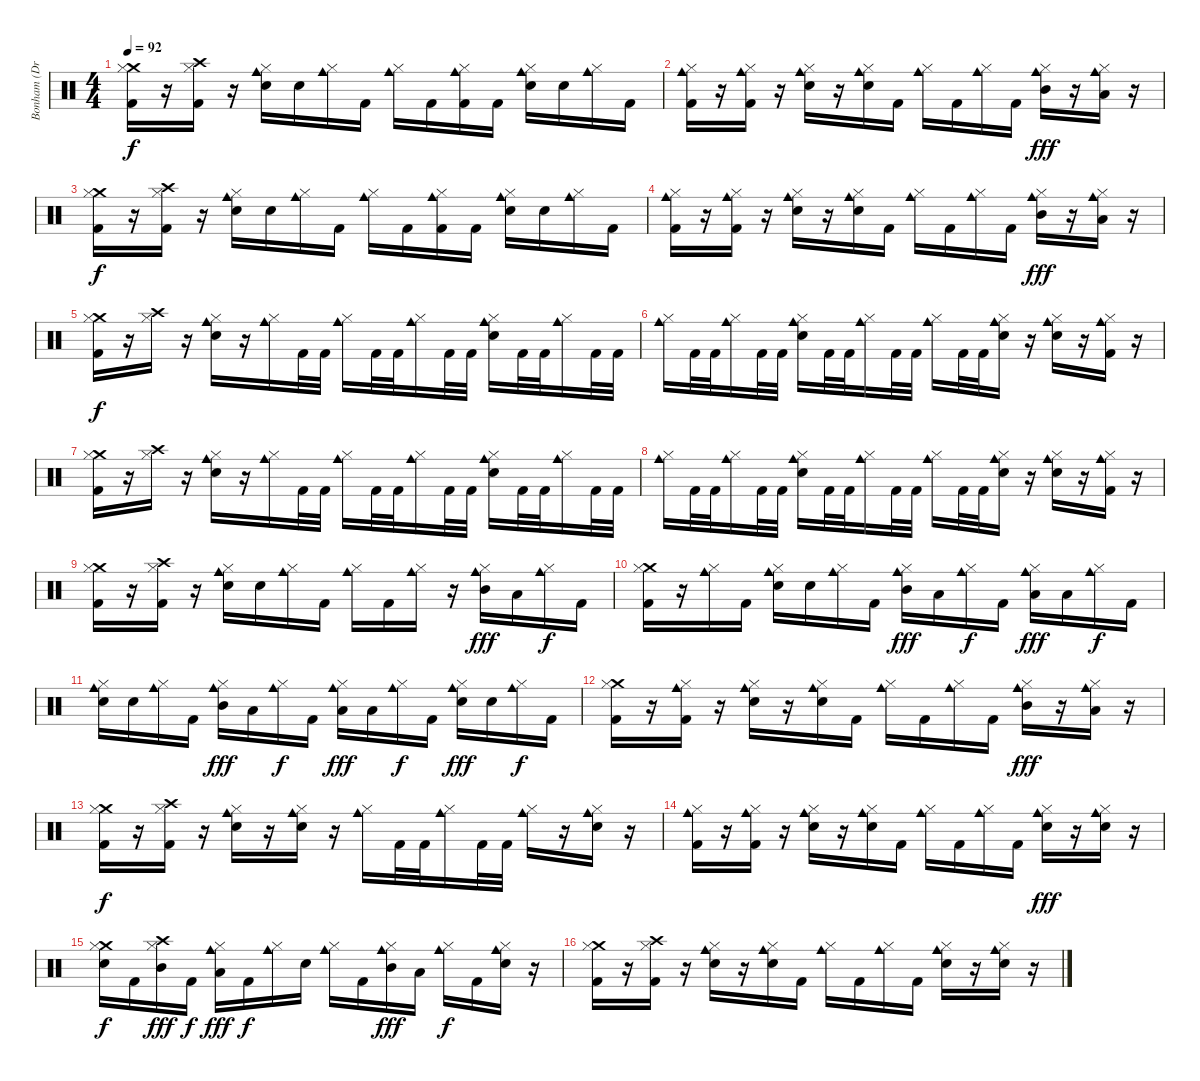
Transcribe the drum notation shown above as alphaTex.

\track ("Bonham (Drums)" "Bonham (Dr") {instrument percussion}
\staff {score}
\articulation defaults
\ts (4 4)
\tempo 92
\clef neutral
\ks c
("Crash medium (hit)" "Hi-Hat (closed)" "Kick (hit) 2").16{dy f} r.16 ("Crash high (hit)" "Hi-Hat (closed)" "Kick (hit) 2").16 r.16 ("Cowbell medium (hit)" "Hi-Hat (closed)" "Electric Snare (hit)").16 "Electric Snare (hit)".16 ("Cowbell medium (hit)" "Hi-Hat (closed)").16 "Kick (hit) 2".16 ("Cowbell medium (hit)" "Hi-Hat (closed)").16 "Kick (hit) 2".16 ("Cowbell medium (hit)" "Hi-Hat (closed)" "Kick (hit) 2").16 "Kick (hit) 2".16 ("Cowbell medium (hit)" "Hi-Hat (closed)" "Electric Snare (hit)").16 "Electric Snare (hit)".16 ("Cowbell medium (hit)" "Hi-Hat (closed)").16 "Kick (hit) 2".16 |
("Cowbell medium (hit)" "Hi-Hat (closed)" "Kick (hit) 2").16 r.16 ("Cowbell medium (hit)" "Hi-Hat (closed)" "Kick (hit) 2").16 r.16 ("Cowbell medium (hit)" "Hi-Hat (closed)" "Electric Snare (hit)").16 r.16 ("Cowbell medium (hit)" "Hi-Hat (closed)" "Electric Snare (hit)").16 "Kick (hit) 2".16 ("Cowbell medium (hit)" "Hi-Hat (closed)").16 "Kick (hit) 2".16 ("Cowbell medium (hit)" "Hi-Hat (closed)").16 "Kick (hit) 2".16 ("Cowbell medium (hit)" "Hi-Hat (closed)" "Mid Tom (hit)").16{dy fff} r.16 ("Cowbell medium (hit)" "Hi-Hat (closed)" "Low Tom (hit)").16 r.16 |
("Crash medium (hit)" "Hi-Hat (closed)" "Kick (hit) 2").16{dy f} r.16 ("Crash high (hit)" "Hi-Hat (closed)" "Kick (hit) 2").16 r.16 ("Cowbell medium (hit)" "Hi-Hat (closed)" "Electric Snare (hit)").16 "Electric Snare (hit)".16 ("Cowbell medium (hit)" "Hi-Hat (closed)").16 "Kick (hit) 2".16 ("Cowbell medium (hit)" "Hi-Hat (closed)").16 "Kick (hit) 2".16 ("Cowbell medium (hit)" "Hi-Hat (closed)" "Kick (hit) 2").16 "Kick (hit) 2".16 ("Cowbell medium (hit)" "Hi-Hat (closed)" "Electric Snare (hit)").16 "Electric Snare (hit)".16 ("Cowbell medium (hit)" "Hi-Hat (closed)").16 "Kick (hit) 2".16 |
("Cowbell medium (hit)" "Hi-Hat (closed)" "Kick (hit) 2").16 r.16 ("Cowbell medium (hit)" "Hi-Hat (closed)" "Kick (hit) 2").16 r.16 ("Cowbell medium (hit)" "Hi-Hat (closed)" "Electric Snare (hit)").16 r.16 ("Cowbell medium (hit)" "Hi-Hat (closed)" "Electric Snare (hit)").16 "Kick (hit) 2".16 ("Cowbell medium (hit)" "Hi-Hat (closed)").16 "Kick (hit) 2".16 ("Cowbell medium (hit)" "Hi-Hat (closed)").16 "Kick (hit) 2".16 ("Cowbell medium (hit)" "Hi-Hat (closed)" "Mid Tom (hit)").16{dy fff} r.16 ("Cowbell medium (hit)" "Hi-Hat (closed)" "Low Tom (hit)").16 r.16 |
("Crash medium (hit)" "Hi-Hat (closed)" "Kick (hit) 2").16{dy f} r.16 ("Crash high (hit)" "Hi-Hat (closed)").16 r.16 ("Cowbell medium (hit)" "Hi-Hat (closed)" "Electric Snare (hit)").16 r.16 ("Cowbell medium (hit)" "Hi-Hat (closed)").16 "Kick (hit) 2".32 "Kick (hit) 2".32 ("Cowbell medium (hit)" "Hi-Hat (closed)").16 "Kick (hit) 2".32 "Kick (hit) 2".32 ("Cowbell medium (hit)" "Hi-Hat (closed)").16 "Kick (hit) 2".32 "Kick (hit) 2".32 ("Cowbell medium (hit)" "Hi-Hat (closed)" "Electric Snare (hit)").16 "Kick (hit) 2".32 "Kick (hit) 2".32 ("Cowbell medium (hit)" "Hi-Hat (closed)").16 "Kick (hit) 2".32 "Kick (hit) 2".32 |
("Cowbell medium (hit)" "Hi-Hat (closed)").16 "Kick (hit) 2".32 "Kick (hit) 2".32 ("Cowbell medium (hit)" "Hi-Hat (closed)").16 "Kick (hit) 2".32 "Kick (hit) 2".32 ("Cowbell medium (hit)" "Hi-Hat (closed)" "Electric Snare (hit)").16 "Kick (hit) 2".32 "Kick (hit) 2".32 ("Cowbell medium (hit)" "Hi-Hat (closed)").16 "Kick (hit) 2".32 "Kick (hit) 2".32 ("Cowbell medium (hit)" "Hi-Hat (closed)").16 "Kick (hit) 2".32 "Kick (hit) 2".32 ("Cowbell medium (hit)" "Hi-Hat (closed)" "Electric Snare (hit)").16 r.16 ("Cowbell medium (hit)" "Hi-Hat (closed)" "Electric Snare (hit)").16 r.16 ("Cowbell medium (hit)" "Hi-Hat (closed)" "Kick (hit) 2").16 r.16 |
("Crash medium (hit)" "Hi-Hat (closed)" "Kick (hit) 2").16 r.16 ("Crash high (hit)" "Hi-Hat (closed)").16 r.16 ("Cowbell medium (hit)" "Hi-Hat (closed)" "Electric Snare (hit)").16 r.16 ("Cowbell medium (hit)" "Hi-Hat (closed)").16 "Kick (hit) 2".32 "Kick (hit) 2".32 ("Cowbell medium (hit)" "Hi-Hat (closed)").16 "Kick (hit) 2".32 "Kick (hit) 2".32 ("Cowbell medium (hit)" "Hi-Hat (closed)").16 "Kick (hit) 2".32 "Kick (hit) 2".32 ("Cowbell medium (hit)" "Hi-Hat (closed)" "Electric Snare (hit)").16 "Kick (hit) 2".32 "Kick (hit) 2".32 ("Cowbell medium (hit)" "Hi-Hat (closed)").16 "Kick (hit) 2".32 "Kick (hit) 2".32 |
("Cowbell medium (hit)" "Hi-Hat (closed)").16 "Kick (hit) 2".32 "Kick (hit) 2".32 ("Cowbell medium (hit)" "Hi-Hat (closed)").16 "Kick (hit) 2".32 "Kick (hit) 2".32 ("Cowbell medium (hit)" "Hi-Hat (closed)" "Electric Snare (hit)").16 "Kick (hit) 2".32 "Kick (hit) 2".32 ("Cowbell medium (hit)" "Hi-Hat (closed)").16 "Kick (hit) 2".32 "Kick (hit) 2".32 ("Cowbell medium (hit)" "Hi-Hat (closed)").16 "Kick (hit) 2".32 "Kick (hit) 2".32 ("Cowbell medium (hit)" "Hi-Hat (closed)" "Electric Snare (hit)").16 r.16 ("Cowbell medium (hit)" "Hi-Hat (closed)" "Electric Snare (hit)").16 r.16 ("Cowbell medium (hit)" "Hi-Hat (closed)" "Kick (hit) 2").16 r.16 |
("Crash medium (hit)" "Hi-Hat (closed)" "Kick (hit) 2").16 r.16 ("Crash high (hit)" "Hi-Hat (closed)" "Kick (hit) 2").16 r.16 ("Cowbell medium (hit)" "Hi-Hat (closed)" "Electric Snare (hit)").16 "Electric Snare (hit)".16 ("Cowbell medium (hit)" "Hi-Hat (closed)").16 "Kick (hit) 2".16 ("Cowbell medium (hit)" "Hi-Hat (closed)").16 "Kick (hit) 2".16 ("Cowbell medium (hit)" "Hi-Hat (closed)").16 r.16 ("Cowbell medium (hit)" "Hi-Hat (closed)" "Mid Tom (hit)").16{dy fff} "Low Tom (hit)".16 ("Cowbell medium (hit)" "Hi-Hat (closed)").16{dy f} "Kick (hit) 2".16 |
("Crash medium (hit)" "Hi-Hat (closed)" "Kick (hit) 2").16 r.16 ("Cowbell medium (hit)" "Hi-Hat (closed)").16 "Kick (hit) 2".16 ("Cowbell medium (hit)" "Hi-Hat (closed)" "Electric Snare (hit)").16 "Electric Snare (hit)".16 ("Cowbell medium (hit)" "Hi-Hat (closed)").16 "Kick (hit) 2".16 ("Cowbell medium (hit)" "Hi-Hat (closed)" "Mid Tom (hit)").16{dy fff} "Low Tom (hit)".16 ("Cowbell medium (hit)" "Hi-Hat (closed)").16{dy f} "Kick (hit) 2".16 ("Cowbell medium (hit)" "Hi-Hat (closed)" "Low Tom (hit)").16{dy fff} "Low Floor Tom (hit)".16 ("Cowbell medium (hit)" "Hi-Hat (closed)").16{dy f} "Kick (hit) 2".16 |
("Cowbell medium (hit)" "Hi-Hat (closed)" "Electric Snare (hit)").16 "Electric Snare (hit)".16 ("Cowbell medium (hit)" "Hi-Hat (closed)").16 "Kick (hit) 2".16 ("Cowbell medium (hit)" "Hi-Hat (closed)" "Mid Tom (hit)").16{dy fff} "Low Tom (hit)".16 ("Cowbell medium (hit)" "Hi-Hat (closed)").16{dy f} "Kick (hit) 2".16 ("Cowbell medium (hit)" "Hi-Hat (closed)" "Low Tom (hit)").16{dy fff} "Low Floor Tom (hit)".16 ("Cowbell medium (hit)" "Hi-Hat (closed)").16{dy f} "Kick (hit) 2".16 ("Cowbell medium (hit)" "Hi-Hat (closed)" "Electric Snare (hit)").16{dy fff} "Electric Snare (hit)".16 ("Cowbell medium (hit)" "Hi-Hat (closed)").16{dy f} "Kick (hit) 2".16 |
("Crash medium (hit)" "Hi-Hat (closed)" "Kick (hit) 2").16 r.16 ("Cowbell medium (hit)" "Hi-Hat (closed)" "Kick (hit) 2").16 r.16 ("Cowbell medium (hit)" "Hi-Hat (closed)" "Electric Snare (hit)").16 r.16 ("Cowbell medium (hit)" "Hi-Hat (closed)" "Electric Snare (hit)").16 "Kick (hit) 2".16 ("Cowbell medium (hit)" "Hi-Hat (closed)").16 "Kick (hit) 2".16 ("Cowbell medium (hit)" "Hi-Hat (closed)").16 "Kick (hit) 2".16 ("Cowbell medium (hit)" "Hi-Hat (closed)" "Mid Tom (hit)").16{dy fff} r.16 ("Cowbell medium (hit)" "Hi-Hat (closed)" "Low Tom (hit)").16 r.16 |
("Crash medium (hit)" "Hi-Hat (closed)" "Kick (hit) 2").16{dy f} r.16 ("Crash high (hit)" "Hi-Hat (closed)" "Kick (hit) 2").16 r.16 ("Cowbell medium (hit)" "Hi-Hat (closed)" "Electric Snare (hit)").16 r.16 ("Cowbell medium (hit)" "Hi-Hat (closed)" "Electric Snare (hit)").16 r.16 ("Cowbell medium (hit)" "Hi-Hat (closed)").16 "Kick (hit) 2".32 "Kick (hit) 2".32 ("Cowbell medium (hit)" "Hi-Hat (closed)").16 "Kick (hit) 2".32 "Kick (hit) 2".32 ("Cowbell medium (hit)" "Hi-Hat (closed)").16 r.16 ("Cowbell medium (hit)" "Hi-Hat (closed)" "Electric Snare (hit)").16 r.16 |
("Cowbell medium (hit)" "Hi-Hat (closed)" "Kick (hit) 2").16 r.16 ("Cowbell medium (hit)" "Hi-Hat (closed)" "Kick (hit) 2").16 r.16 ("Cowbell medium (hit)" "Hi-Hat (closed)" "Electric Snare (hit)").16 r.16 ("Cowbell medium (hit)" "Hi-Hat (closed)" "Electric Snare (hit)").16 "Kick (hit) 2".16 ("Cowbell medium (hit)" "Hi-Hat (closed)").16 "Kick (hit) 2".16 ("Cowbell medium (hit)" "Hi-Hat (closed)").16 "Kick (hit) 2".16 ("Cowbell medium (hit)" "Hi-Hat (closed)" "Electric Snare (hit)").16{dy fff} r.16 ("Cowbell medium (hit)" "Hi-Hat (closed)" "Electric Snare (hit)").16 r.16 |
("Crash medium (hit)" "Hi-Hat (closed)" "Electric Snare (hit)").16{dy f volume 10} "Kick (hit) 2".16 ("Crash high (hit)" "Hi-Hat (closed)" "Mid Tom (hit)").16{dy fff} "Kick (hit) 2".16{dy f} ("Cowbell medium (hit)" "Hi-Hat (closed)" "Low Tom (hit)").16{dy fff} "Kick (hit) 2".16{dy f} ("Cowbell medium (hit)" "Hi-Hat (closed)").16 "Electric Snare (hit)".16 ("Cowbell medium (hit)" "Hi-Hat (closed)").16 "Kick (hit) 2".16 ("Cowbell medium (hit)" "Hi-Hat (closed)" "Mid Tom (hit)").16{dy fff} "Low Tom (hit)".16 ("Cowbell medium (hit)" "Hi-Hat (closed)").16{dy f} "Kick (hit) 2".16 ("Cowbell medium (hit)" "Hi-Hat (closed)" "Electric Snare (hit)").16 r.16 |
("Crash medium (hit)" "Hi-Hat (closed)" "Kick (hit) 2").16{volume 0} r.16 ("Crash high (hit)" "Hi-Hat (closed)" "Kick (hit) 2").16 r.16 ("Cowbell medium (hit)" "Hi-Hat (closed)" "Electric Snare (hit)").16 r.16 ("Cowbell medium (hit)" "Hi-Hat (closed)" "Electric Snare (hit)").16 "Kick (hit) 2".16 ("Cowbell medium (hit)" "Hi-Hat (closed)").16 "Kick (hit) 2".16 ("Cowbell medium (hit)" "Hi-Hat (closed)").16 "Kick (hit) 2".16 ("Cowbell medium (hit)" "Hi-Hat (closed)" "Electric Snare (hit)").16 r.16 ("Cowbell medium (hit)" "Hi-Hat (closed)" "Electric Snare (hit)").16 r.16
